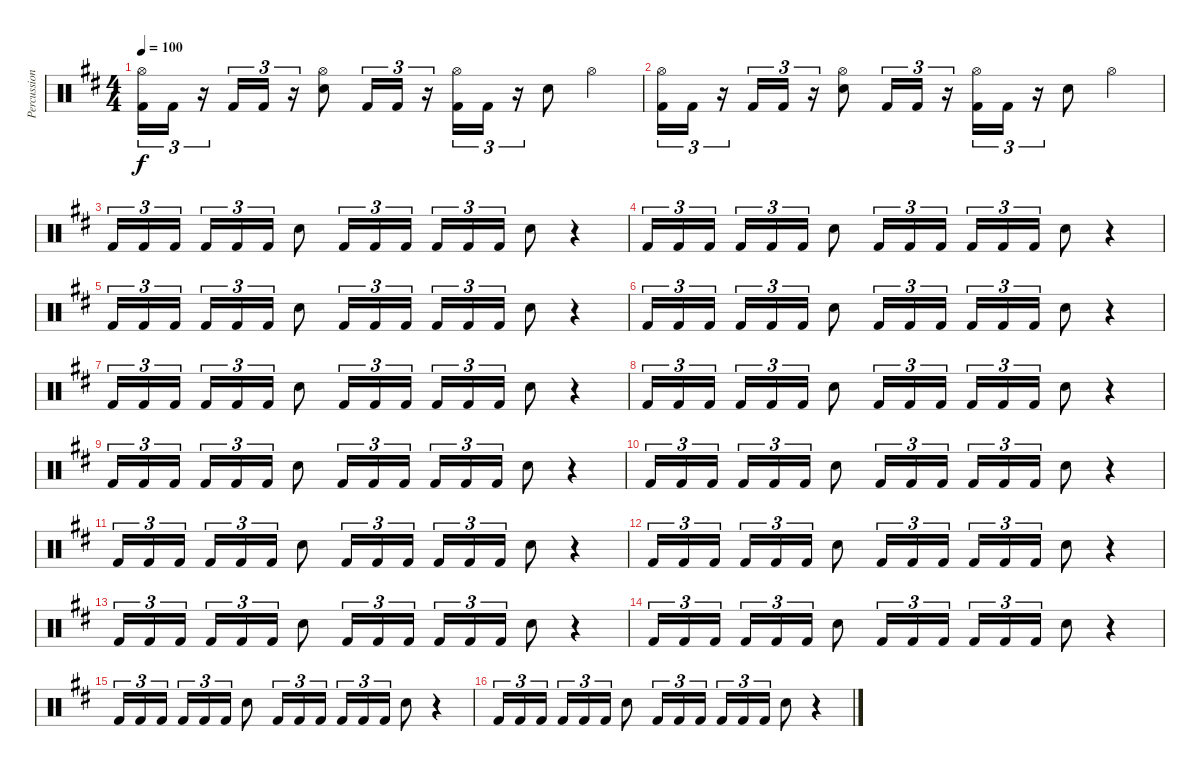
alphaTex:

\track ("Percussion" "Percussion") {instrument percussion}
\staff {score}
\articulation defaults
\ts (4 4)
\tempo 100
\clef neutral
\ks d
("Hi-Hat (open)" "Kick (hit) 2").16{tu (3 2) dy f} "Kick (hit) 2".16{tu (3 2)} r.16{tu (3 2)} "Kick (hit) 2".16{tu (3 2)} "Kick (hit) 2".16{tu (3 2)} r.16{tu (3 2)} ("Hi-Hat (open)" "Electric Snare (hit)").8 "Kick (hit) 2".16{tu (3 2)} "Kick (hit) 2".16{tu (3 2)} r.16{tu (3 2)} ("Hi-Hat (open)" "Kick (hit) 2").16{tu (3 2)} "Kick (hit) 2".16{tu (3 2)} r.16{tu (3 2)} "Electric Snare (hit)".8 "Hi-Hat (open)".4 |
("Hi-Hat (open)" "Kick (hit) 2").16{tu (3 2)} "Kick (hit) 2".16{tu (3 2)} r.16{tu (3 2)} "Kick (hit) 2".16{tu (3 2)} "Kick (hit) 2".16{tu (3 2)} r.16{tu (3 2)} ("Hi-Hat (open)" "Electric Snare (hit)").8 "Kick (hit) 2".16{tu (3 2)} "Kick (hit) 2".16{tu (3 2)} r.16{tu (3 2)} ("Hi-Hat (open)" "Kick (hit) 2").16{tu (3 2)} "Kick (hit) 2".16{tu (3 2)} r.16{tu (3 2)} "Electric Snare (hit)".8 "Hi-Hat (open)".4 |
"Kick (hit) 2".16{tu (3 2)} "Kick (hit) 2".16{tu (3 2)} "Kick (hit) 2".16{tu (3 2) beam splitsecondary} "Kick (hit) 2".16{tu (3 2)} "Kick (hit) 2".16{tu (3 2)} "Kick (hit) 2".16{tu (3 2)} "Electric Snare (hit)".8 "Kick (hit) 2".16{tu (3 2)} "Kick (hit) 2".16{tu (3 2)} "Kick (hit) 2".16{tu (3 2)} "Kick (hit) 2".16{tu (3 2)} "Kick (hit) 2".16{tu (3 2)} "Kick (hit) 2".16{tu (3 2)} "Electric Snare (hit)".8 r.4 |
"Kick (hit) 2".16{tu (3 2)} "Kick (hit) 2".16{tu (3 2)} "Kick (hit) 2".16{tu (3 2) beam splitsecondary} "Kick (hit) 2".16{tu (3 2)} "Kick (hit) 2".16{tu (3 2)} "Kick (hit) 2".16{tu (3 2)} "Electric Snare (hit)".8 "Kick (hit) 2".16{tu (3 2)} "Kick (hit) 2".16{tu (3 2)} "Kick (hit) 2".16{tu (3 2)} "Kick (hit) 2".16{tu (3 2)} "Kick (hit) 2".16{tu (3 2)} "Kick (hit) 2".16{tu (3 2)} "Electric Snare (hit)".8 r.4 |
"Kick (hit) 2".16{tu (3 2)} "Kick (hit) 2".16{tu (3 2)} "Kick (hit) 2".16{tu (3 2) beam splitsecondary} "Kick (hit) 2".16{tu (3 2)} "Kick (hit) 2".16{tu (3 2)} "Kick (hit) 2".16{tu (3 2)} "Electric Snare (hit)".8 "Kick (hit) 2".16{tu (3 2)} "Kick (hit) 2".16{tu (3 2)} "Kick (hit) 2".16{tu (3 2)} "Kick (hit) 2".16{tu (3 2)} "Kick (hit) 2".16{tu (3 2)} "Kick (hit) 2".16{tu (3 2)} "Electric Snare (hit)".8 r.4 |
"Kick (hit) 2".16{tu (3 2)} "Kick (hit) 2".16{tu (3 2)} "Kick (hit) 2".16{tu (3 2) beam splitsecondary} "Kick (hit) 2".16{tu (3 2)} "Kick (hit) 2".16{tu (3 2)} "Kick (hit) 2".16{tu (3 2)} "Electric Snare (hit)".8 "Kick (hit) 2".16{tu (3 2)} "Kick (hit) 2".16{tu (3 2)} "Kick (hit) 2".16{tu (3 2)} "Kick (hit) 2".16{tu (3 2)} "Kick (hit) 2".16{tu (3 2)} "Kick (hit) 2".16{tu (3 2)} "Electric Snare (hit)".8 r.4 |
"Kick (hit) 2".16{tu (3 2)} "Kick (hit) 2".16{tu (3 2)} "Kick (hit) 2".16{tu (3 2) beam splitsecondary} "Kick (hit) 2".16{tu (3 2)} "Kick (hit) 2".16{tu (3 2)} "Kick (hit) 2".16{tu (3 2)} "Electric Snare (hit)".8 "Kick (hit) 2".16{tu (3 2)} "Kick (hit) 2".16{tu (3 2)} "Kick (hit) 2".16{tu (3 2)} "Kick (hit) 2".16{tu (3 2)} "Kick (hit) 2".16{tu (3 2)} "Kick (hit) 2".16{tu (3 2)} "Electric Snare (hit)".8 r.4 |
"Kick (hit) 2".16{tu (3 2)} "Kick (hit) 2".16{tu (3 2)} "Kick (hit) 2".16{tu (3 2) beam splitsecondary} "Kick (hit) 2".16{tu (3 2)} "Kick (hit) 2".16{tu (3 2)} "Kick (hit) 2".16{tu (3 2)} "Electric Snare (hit)".8 "Kick (hit) 2".16{tu (3 2)} "Kick (hit) 2".16{tu (3 2)} "Kick (hit) 2".16{tu (3 2)} "Kick (hit) 2".16{tu (3 2)} "Kick (hit) 2".16{tu (3 2)} "Kick (hit) 2".16{tu (3 2)} "Electric Snare (hit)".8 r.4 |
"Kick (hit) 2".16{tu (3 2)} "Kick (hit) 2".16{tu (3 2)} "Kick (hit) 2".16{tu (3 2) beam splitsecondary} "Kick (hit) 2".16{tu (3 2)} "Kick (hit) 2".16{tu (3 2)} "Kick (hit) 2".16{tu (3 2)} "Electric Snare (hit)".8 "Kick (hit) 2".16{tu (3 2)} "Kick (hit) 2".16{tu (3 2)} "Kick (hit) 2".16{tu (3 2)} "Kick (hit) 2".16{tu (3 2)} "Kick (hit) 2".16{tu (3 2)} "Kick (hit) 2".16{tu (3 2)} "Electric Snare (hit)".8 r.4 |
"Kick (hit) 2".16{tu (3 2)} "Kick (hit) 2".16{tu (3 2)} "Kick (hit) 2".16{tu (3 2) beam splitsecondary} "Kick (hit) 2".16{tu (3 2)} "Kick (hit) 2".16{tu (3 2)} "Kick (hit) 2".16{tu (3 2)} "Electric Snare (hit)".8 "Kick (hit) 2".16{tu (3 2)} "Kick (hit) 2".16{tu (3 2)} "Kick (hit) 2".16{tu (3 2)} "Kick (hit) 2".16{tu (3 2)} "Kick (hit) 2".16{tu (3 2)} "Kick (hit) 2".16{tu (3 2)} "Electric Snare (hit)".8 r.4 |
"Kick (hit) 2".16{tu (3 2)} "Kick (hit) 2".16{tu (3 2)} "Kick (hit) 2".16{tu (3 2) beam splitsecondary} "Kick (hit) 2".16{tu (3 2)} "Kick (hit) 2".16{tu (3 2)} "Kick (hit) 2".16{tu (3 2)} "Electric Snare (hit)".8 "Kick (hit) 2".16{tu (3 2)} "Kick (hit) 2".16{tu (3 2)} "Kick (hit) 2".16{tu (3 2)} "Kick (hit) 2".16{tu (3 2)} "Kick (hit) 2".16{tu (3 2)} "Kick (hit) 2".16{tu (3 2)} "Electric Snare (hit)".8 r.4 |
"Kick (hit) 2".16{tu (3 2)} "Kick (hit) 2".16{tu (3 2)} "Kick (hit) 2".16{tu (3 2) beam splitsecondary} "Kick (hit) 2".16{tu (3 2)} "Kick (hit) 2".16{tu (3 2)} "Kick (hit) 2".16{tu (3 2)} "Electric Snare (hit)".8 "Kick (hit) 2".16{tu (3 2)} "Kick (hit) 2".16{tu (3 2)} "Kick (hit) 2".16{tu (3 2)} "Kick (hit) 2".16{tu (3 2)} "Kick (hit) 2".16{tu (3 2)} "Kick (hit) 2".16{tu (3 2)} "Electric Snare (hit)".8 r.4 |
"Kick (hit) 2".16{tu (3 2)} "Kick (hit) 2".16{tu (3 2)} "Kick (hit) 2".16{tu (3 2) beam splitsecondary} "Kick (hit) 2".16{tu (3 2)} "Kick (hit) 2".16{tu (3 2)} "Kick (hit) 2".16{tu (3 2)} "Electric Snare (hit)".8 "Kick (hit) 2".16{tu (3 2)} "Kick (hit) 2".16{tu (3 2)} "Kick (hit) 2".16{tu (3 2)} "Kick (hit) 2".16{tu (3 2)} "Kick (hit) 2".16{tu (3 2)} "Kick (hit) 2".16{tu (3 2)} "Electric Snare (hit)".8 r.4 |
"Kick (hit) 2".16{tu (3 2)} "Kick (hit) 2".16{tu (3 2)} "Kick (hit) 2".16{tu (3 2) beam splitsecondary} "Kick (hit) 2".16{tu (3 2)} "Kick (hit) 2".16{tu (3 2)} "Kick (hit) 2".16{tu (3 2)} "Electric Snare (hit)".8 "Kick (hit) 2".16{tu (3 2)} "Kick (hit) 2".16{tu (3 2)} "Kick (hit) 2".16{tu (3 2)} "Kick (hit) 2".16{tu (3 2)} "Kick (hit) 2".16{tu (3 2)} "Kick (hit) 2".16{tu (3 2)} "Electric Snare (hit)".8 r.4 |
"Kick (hit) 2".16{tu (3 2)} "Kick (hit) 2".16{tu (3 2)} "Kick (hit) 2".16{tu (3 2) beam splitsecondary} "Kick (hit) 2".16{tu (3 2)} "Kick (hit) 2".16{tu (3 2)} "Kick (hit) 2".16{tu (3 2)} "Electric Snare (hit)".8 "Kick (hit) 2".16{tu (3 2)} "Kick (hit) 2".16{tu (3 2)} "Kick (hit) 2".16{tu (3 2)} "Kick (hit) 2".16{tu (3 2)} "Kick (hit) 2".16{tu (3 2)} "Kick (hit) 2".16{tu (3 2)} "Electric Snare (hit)".8 r.4 |
"Kick (hit) 2".16{tu (3 2)} "Kick (hit) 2".16{tu (3 2)} "Kick (hit) 2".16{tu (3 2) beam splitsecondary} "Kick (hit) 2".16{tu (3 2)} "Kick (hit) 2".16{tu (3 2)} "Kick (hit) 2".16{tu (3 2)} "Electric Snare (hit)".8 "Kick (hit) 2".16{tu (3 2)} "Kick (hit) 2".16{tu (3 2)} "Kick (hit) 2".16{tu (3 2)} "Kick (hit) 2".16{tu (3 2)} "Kick (hit) 2".16{tu (3 2)} "Kick (hit) 2".16{tu (3 2)} "Electric Snare (hit)".8 r.4
